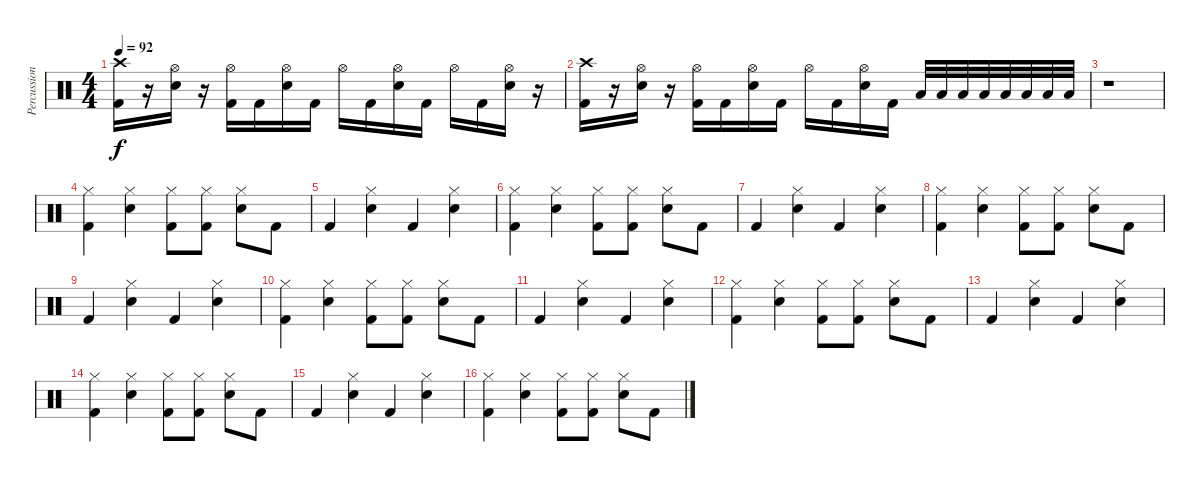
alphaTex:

\track ("Percussion" "Percussion") {instrument percussion}
\staff {score}
\articulation defaults
\ts (4 4)
\tempo 92
\clef neutral
\ks c
("Kick (hit) 2" "Crash high (hit)").16{dy f} r.16 ("Electric Snare (hit)" "Hi-Hat (open)").16 r.16 ("Kick (hit) 2" "Hi-Hat (open)").16 "Kick (hit) 2".16 ("Electric Snare (hit)" "Hi-Hat (open)").16 "Kick (hit) 2".16 "Hi-Hat (open)".16 "Kick (hit) 2".16 ("Electric Snare (hit)" "Hi-Hat (open)").16 "Kick (hit) 2".16 "Hi-Hat (open)".16 "Kick (hit) 2".16 ("Electric Snare (hit)" "Hi-Hat (open)").16 r.16 |
("Kick (hit) 2" "Crash high (hit)").16 r.16 ("Electric Snare (hit)" "Hi-Hat (open)").16 r.16 ("Kick (hit) 2" "Hi-Hat (open)").16 "Kick (hit) 2".16 ("Electric Snare (hit)" "Hi-Hat (open)").16 "Kick (hit) 2".16 "Hi-Hat (open)".16 "Kick (hit) 2".16 ("Electric Snare (hit)" "Hi-Hat (open)").16 "Kick (hit) 2".16 "Low Tom (hit)".32 "Low Tom (hit)".32 "Low Tom (hit)".32 "Low Tom (hit)".32 "Low Floor Tom (hit)".32 "Low Floor Tom (hit)".32 "Low Floor Tom (hit)".32 "Low Floor Tom (hit)".32 |
r.1 |
("Hi-Hat (closed)" "Kick (hit) 2").4 ("Hi-Hat (closed)" "Electric Snare (hit)").4 ("Hi-Hat (closed)" "Kick (hit) 2").8 ("Hi-Hat (closed)" "Kick (hit) 2").8 ("Hi-Hat (closed)" "Electric Snare (hit)").8 "Kick (hit) 2".8 |
"Kick (hit) 2".4 ("Hi-Hat (closed)" "Electric Snare (hit)").4 "Kick (hit) 2".4 ("Hi-Hat (closed)" "Electric Snare (hit)").4 |
("Hi-Hat (closed)" "Kick (hit) 2").4 ("Hi-Hat (closed)" "Electric Snare (hit)").4 ("Hi-Hat (closed)" "Kick (hit) 2").8 ("Hi-Hat (closed)" "Kick (hit) 2").8 ("Hi-Hat (closed)" "Electric Snare (hit)").8 "Kick (hit) 2".8 |
"Kick (hit) 2".4 ("Hi-Hat (closed)" "Electric Snare (hit)").4 "Kick (hit) 2".4 ("Hi-Hat (closed)" "Electric Snare (hit)").4 |
("Hi-Hat (closed)" "Kick (hit) 2").4 ("Hi-Hat (closed)" "Electric Snare (hit)").4 ("Hi-Hat (closed)" "Kick (hit) 2").8 ("Hi-Hat (closed)" "Kick (hit) 2").8 ("Hi-Hat (closed)" "Electric Snare (hit)").8 "Kick (hit) 2".8 |
"Kick (hit) 2".4 ("Hi-Hat (closed)" "Electric Snare (hit)").4 "Kick (hit) 2".4 ("Hi-Hat (closed)" "Electric Snare (hit)").4 |
("Hi-Hat (closed)" "Kick (hit) 2").4 ("Hi-Hat (closed)" "Electric Snare (hit)").4 ("Hi-Hat (closed)" "Kick (hit) 2").8 ("Hi-Hat (closed)" "Kick (hit) 2").8 ("Hi-Hat (closed)" "Electric Snare (hit)").8 "Kick (hit) 2".8 |
"Kick (hit) 2".4 ("Hi-Hat (closed)" "Electric Snare (hit)").4 "Kick (hit) 2".4 ("Hi-Hat (closed)" "Electric Snare (hit)").4 |
("Hi-Hat (closed)" "Kick (hit) 2").4 ("Hi-Hat (closed)" "Electric Snare (hit)").4 ("Hi-Hat (closed)" "Kick (hit) 2").8 ("Hi-Hat (closed)" "Kick (hit) 2").8 ("Hi-Hat (closed)" "Electric Snare (hit)").8 "Kick (hit) 2".8 |
"Kick (hit) 2".4 ("Hi-Hat (closed)" "Electric Snare (hit)").4 "Kick (hit) 2".4 ("Hi-Hat (closed)" "Electric Snare (hit)").4 |
("Hi-Hat (closed)" "Kick (hit) 2").4 ("Hi-Hat (closed)" "Electric Snare (hit)").4 ("Hi-Hat (closed)" "Kick (hit) 2").8 ("Hi-Hat (closed)" "Kick (hit) 2").8 ("Hi-Hat (closed)" "Electric Snare (hit)").8 "Kick (hit) 2".8 |
"Kick (hit) 2".4 ("Hi-Hat (closed)" "Electric Snare (hit)").4 "Kick (hit) 2".4 ("Hi-Hat (closed)" "Electric Snare (hit)").4 |
("Hi-Hat (closed)" "Kick (hit) 2").4 ("Hi-Hat (closed)" "Electric Snare (hit)").4 ("Hi-Hat (closed)" "Kick (hit) 2").8 ("Hi-Hat (closed)" "Kick (hit) 2").8 ("Hi-Hat (closed)" "Electric Snare (hit)").8 "Kick (hit) 2".8
